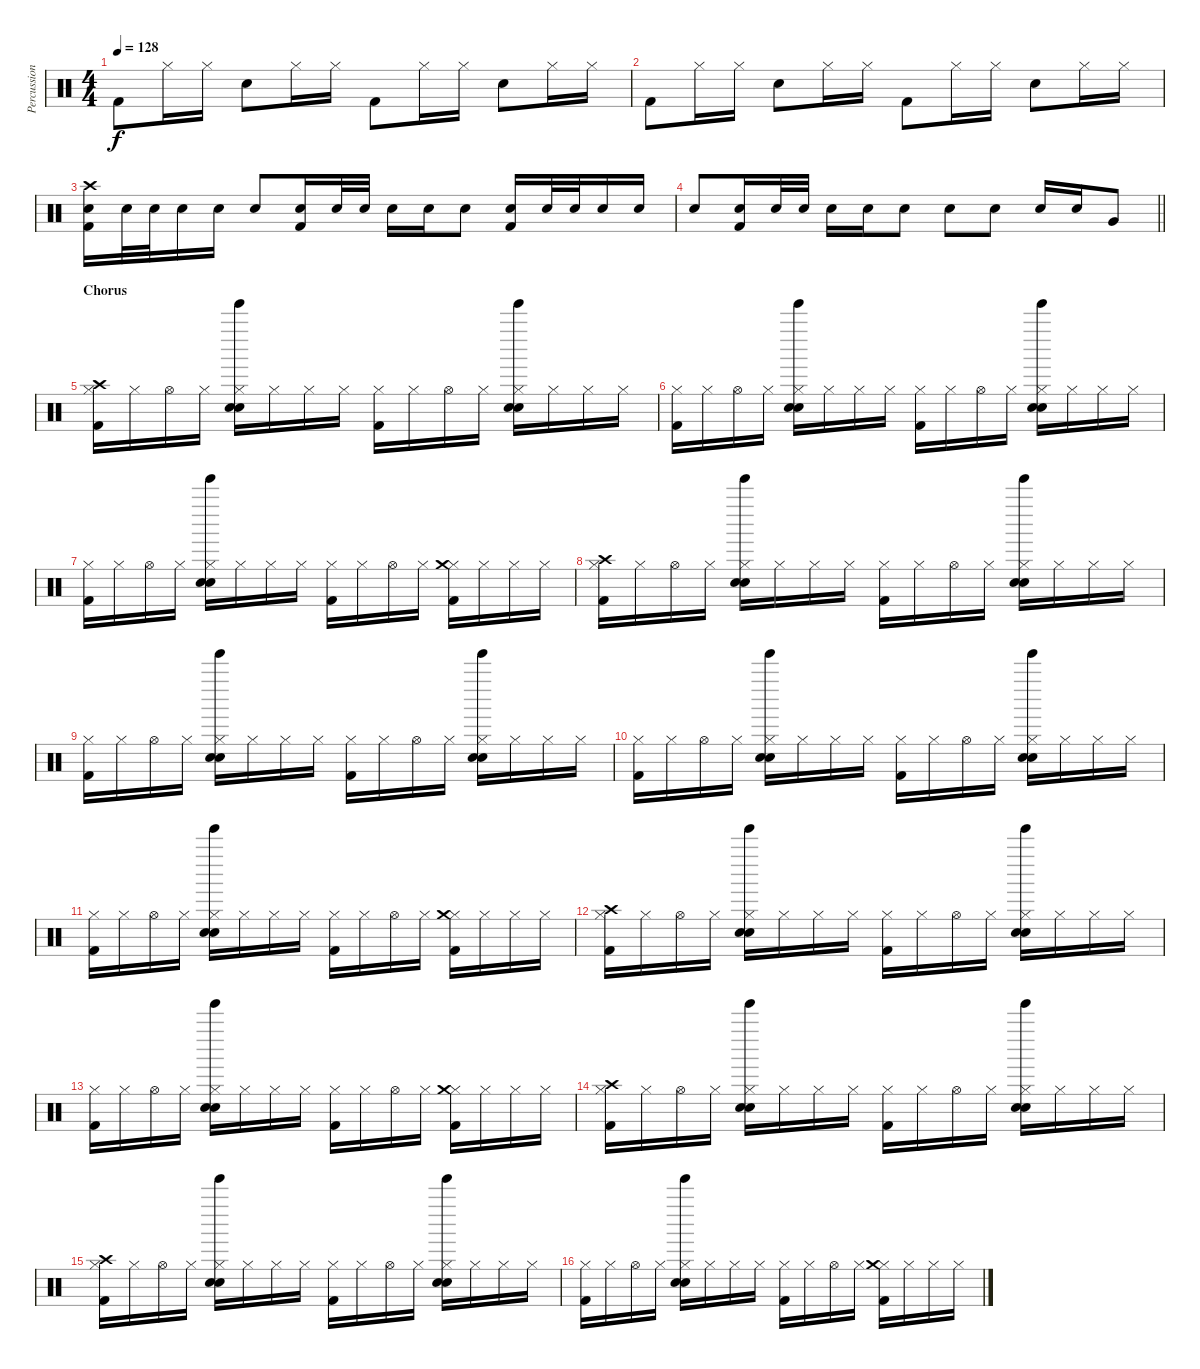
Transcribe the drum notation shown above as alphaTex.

\track ("Percussion" "Percussion") {instrument percussion}
\staff {score}
\articulation defaults
\ts (4 4)
\tempo 128
\clef neutral
\ks c "Kick (hit) 2".8{dy f} "Hi-Hat (closed)".16 "Hi-Hat (closed)".16 "Electric Snare (hit)".8 "Hi-Hat (closed)".16 "Hi-Hat (closed)".16 "Kick (hit) 2".8 "Hi-Hat (closed)".16 "Hi-Hat (closed)".16 "Electric Snare (hit)".8 "Hi-Hat (closed)".16 "Hi-Hat (closed)".16
|
"Kick (hit) 2".8 "Hi-Hat (closed)".16 "Hi-Hat (closed)".16 "Electric Snare (hit)".8 "Hi-Hat (closed)".16 "Hi-Hat (closed)".16 "Kick (hit) 2".8 "Hi-Hat (closed)".16 "Hi-Hat (closed)".16 "Electric Snare (hit)".8 "Hi-Hat (closed)".16 "Hi-Hat (closed)".16 |
("Crash high (hit)" "Electric Snare (hit)" "Kick (hit) 2").16 "Electric Snare (hit)".32 "Electric Snare (hit)".32 "Electric Snare (hit)".16 "Electric Snare (hit)".16 "Electric Snare (hit)".8 ("Electric Snare (hit)" "Kick (hit) 2").16 "Electric Snare (hit)".32 "Electric Snare (hit)".32 "Electric Snare (hit)".16 "Electric Snare (hit)".16 "Electric Snare (hit)".8 ("Electric Snare (hit)" "Kick (hit) 2").16 "Electric Snare (hit)".32 "Electric Snare (hit)".32 "Electric Snare (hit)".16 "Electric Snare (hit)".16 |
\barLineRight lightlight "Electric Snare (hit)".8
("Electric Snare (hit)" "Kick (hit) 2").16 "Electric Snare (hit)".32 "Electric Snare (hit)".32 "Electric Snare (hit)".16 "Electric Snare (hit)".16 "Electric Snare (hit)".8 "Electric Snare (hit)".8 "Electric Snare (hit)".8 "Electric Snare (hit)".16 "Electric Snare (hit)".16 "Very Low Tom (hit)".8 |
\section ("" "Chorus")
("Hi-Hat (closed)" "Crash high (hit)" "Kick (hit) 2").16 "Hi-Hat (closed)".16 "Hi-Hat (open)".16 "Hi-Hat (closed)".16 ("Hi-Hat (closed)" "Hand Clap (hit)" "Tinkle Bell (hit)" "Electric Snare (hit)").16 "Hi-Hat (closed)".16 "Hi-Hat (closed)".16 "Hi-Hat (closed)".16 ("Hi-Hat (closed)" "Kick (hit) 2").16 "Hi-Hat (closed)".16 "Hi-Hat (open)".16 "Hi-Hat (closed)".16 ("Hi-Hat (closed)" "Hand Clap (hit)" "Tinkle Bell (hit)" "Electric Snare (hit)").16 "Hi-Hat (closed)".16 "Hi-Hat (closed)".16 "Hi-Hat (closed)".16 |
("Hi-Hat (closed)" "Kick (hit) 2").16 "Hi-Hat (closed)".16 "Hi-Hat (open)".16 "Hi-Hat (closed)".16 ("Hi-Hat (closed)" "Hand Clap (hit)" "Tinkle Bell (hit)" "Electric Snare (hit)").16 "Hi-Hat (closed)".16 "Hi-Hat (closed)".16 "Hi-Hat (closed)".16 ("Hi-Hat (closed)" "Kick (hit) 2").16 "Hi-Hat (closed)".16 "Hi-Hat (open)".16 "Hi-Hat (closed)".16 ("Hi-Hat (closed)" "Hand Clap (hit)" "Tinkle Bell (hit)" "Electric Snare (hit)").16 "Hi-Hat (closed)".16 "Hi-Hat (closed)".16 "Hi-Hat (closed)".16 |
("Hi-Hat (closed)" "Kick (hit) 2").16 "Hi-Hat (closed)".16 "Hi-Hat (open)".16 "Hi-Hat (closed)".16 ("Hi-Hat (closed)" "Hand Clap (hit)" "Tinkle Bell (hit)" "Electric Snare (hit)").16 "Hi-Hat (closed)".16 "Hi-Hat (closed)".16 "Hi-Hat (closed)".16 ("Hi-Hat (closed)" "Kick (hit) 2").16 "Hi-Hat (closed)".16 "Hi-Hat (open)".16 "Hi-Hat (closed)".16 ("Hi-Hat (closed)" "Crash medium (hit)" "Kick (hit) 2").16 "Hi-Hat (closed)".16 "Hi-Hat (closed)".16 "Hi-Hat (closed)".16 |
("Hi-Hat (closed)" "Crash high (hit)" "Kick (hit) 2").16 "Hi-Hat (closed)".16 "Hi-Hat (open)".16 "Hi-Hat (closed)".16 ("Hi-Hat (closed)" "Hand Clap (hit)" "Tinkle Bell (hit)" "Electric Snare (hit)").16 "Hi-Hat (closed)".16 "Hi-Hat (closed)".16 "Hi-Hat (closed)".16 ("Hi-Hat (closed)" "Kick (hit) 2").16 "Hi-Hat (closed)".16 "Hi-Hat (open)".16 "Hi-Hat (closed)".16 ("Hi-Hat (closed)" "Hand Clap (hit)" "Tinkle Bell (hit)" "Electric Snare (hit)").16 "Hi-Hat (closed)".16 "Hi-Hat (closed)".16 "Hi-Hat (closed)".16 |
("Hi-Hat (closed)" "Kick (hit) 2").16 "Hi-Hat (closed)".16 "Hi-Hat (open)".16 "Hi-Hat (closed)".16 ("Hi-Hat (closed)" "Hand Clap (hit)" "Tinkle Bell (hit)" "Electric Snare (hit)").16 "Hi-Hat (closed)".16 "Hi-Hat (closed)".16 "Hi-Hat (closed)".16 ("Hi-Hat (closed)" "Kick (hit) 2").16 "Hi-Hat (closed)".16 "Hi-Hat (open)".16 "Hi-Hat (closed)".16 ("Hi-Hat (closed)" "Hand Clap (hit)" "Tinkle Bell (hit)" "Electric Snare (hit)").16 "Hi-Hat (closed)".16 "Hi-Hat (closed)".16 "Hi-Hat (closed)".16 |
("Hi-Hat (closed)" "Kick (hit) 2").16 "Hi-Hat (closed)".16 "Hi-Hat (open)".16 "Hi-Hat (closed)".16 ("Hi-Hat (closed)" "Hand Clap (hit)" "Tinkle Bell (hit)" "Electric Snare (hit)").16 "Hi-Hat (closed)".16 "Hi-Hat (closed)".16 "Hi-Hat (closed)".16 ("Hi-Hat (closed)" "Kick (hit) 2").16 "Hi-Hat (closed)".16 "Hi-Hat (open)".16 "Hi-Hat (closed)".16 ("Hi-Hat (closed)" "Hand Clap (hit)" "Tinkle Bell (hit)" "Electric Snare (hit)").16 "Hi-Hat (closed)".16 "Hi-Hat (closed)".16 "Hi-Hat (closed)".16 |
("Hi-Hat (closed)" "Kick (hit) 2").16 "Hi-Hat (closed)".16 "Hi-Hat (open)".16 "Hi-Hat (closed)".16 ("Hi-Hat (closed)" "Hand Clap (hit)" "Tinkle Bell (hit)" "Electric Snare (hit)").16 "Hi-Hat (closed)".16 "Hi-Hat (closed)".16 "Hi-Hat (closed)".16 ("Hi-Hat (closed)" "Kick (hit) 2").16 "Hi-Hat (closed)".16 "Hi-Hat (open)".16 "Hi-Hat (closed)".16 ("Hi-Hat (closed)" "Crash medium (hit)" "Kick (hit) 2").16 "Hi-Hat (closed)".16 "Hi-Hat (closed)".16 "Hi-Hat (closed)".16 |
("Hi-Hat (closed)" "Crash high (hit)" "Kick (hit) 2").16 "Hi-Hat (closed)".16 "Hi-Hat (open)".16 "Hi-Hat (closed)".16 ("Hi-Hat (closed)" "Hand Clap (hit)" "Tinkle Bell (hit)" "Electric Snare (hit)").16 "Hi-Hat (closed)".16 "Hi-Hat (closed)".16 "Hi-Hat (closed)".16 ("Hi-Hat (closed)" "Kick (hit) 2").16 "Hi-Hat (closed)".16 "Hi-Hat (open)".16 "Hi-Hat (closed)".16 ("Hi-Hat (closed)" "Hand Clap (hit)" "Tinkle Bell (hit)" "Electric Snare (hit)").16 "Hi-Hat (closed)".16 "Hi-Hat (closed)".16 "Hi-Hat (closed)".16 |
("Hi-Hat (closed)" "Kick (hit) 2").16 "Hi-Hat (closed)".16 "Hi-Hat (open)".16 "Hi-Hat (closed)".16 ("Hi-Hat (closed)" "Hand Clap (hit)" "Tinkle Bell (hit)" "Electric Snare (hit)").16 "Hi-Hat (closed)".16 "Hi-Hat (closed)".16 "Hi-Hat (closed)".16 ("Hi-Hat (closed)" "Kick (hit) 2").16 "Hi-Hat (closed)".16 "Hi-Hat (open)".16 "Hi-Hat (closed)".16 ("Hi-Hat (closed)" "Crash medium (hit)" "Kick (hit) 2").16 "Hi-Hat (closed)".16 "Hi-Hat (closed)".16 "Hi-Hat (closed)".16 |
("Hi-Hat (closed)" "Crash high (hit)" "Kick (hit) 2").16 "Hi-Hat (closed)".16 "Hi-Hat (open)".16 "Hi-Hat (closed)".16 ("Hi-Hat (closed)" "Hand Clap (hit)" "Tinkle Bell (hit)" "Electric Snare (hit)").16 "Hi-Hat (closed)".16 "Hi-Hat (closed)".16 "Hi-Hat (closed)".16 ("Hi-Hat (closed)" "Kick (hit) 2").16 "Hi-Hat (closed)".16 "Hi-Hat (open)".16 "Hi-Hat (closed)".16 ("Hi-Hat (closed)" "Hand Clap (hit)" "Tinkle Bell (hit)" "Electric Snare (hit)").16 "Hi-Hat (closed)".16 "Hi-Hat (closed)".16 "Hi-Hat (closed)".16 |
("Hi-Hat (closed)" "Crash high (hit)" "Kick (hit) 2").16 "Hi-Hat (closed)".16 "Hi-Hat (open)".16 "Hi-Hat (closed)".16 ("Hi-Hat (closed)" "Hand Clap (hit)" "Tinkle Bell (hit)" "Electric Snare (hit)").16 "Hi-Hat (closed)".16 "Hi-Hat (closed)".16 "Hi-Hat (closed)".16 ("Hi-Hat (closed)" "Kick (hit) 2").16 "Hi-Hat (closed)".16 "Hi-Hat (open)".16 "Hi-Hat (closed)".16 ("Hi-Hat (closed)" "Hand Clap (hit)" "Tinkle Bell (hit)" "Electric Snare (hit)").16 "Hi-Hat (closed)".16 "Hi-Hat (closed)".16 "Hi-Hat (closed)".16 |
("Hi-Hat (closed)" "Kick (hit) 2").16 "Hi-Hat (closed)".16 "Hi-Hat (open)".16 "Hi-Hat (closed)".16 ("Hi-Hat (closed)" "Hand Clap (hit)" "Tinkle Bell (hit)" "Electric Snare (hit)").16 "Hi-Hat (closed)".16 "Hi-Hat (closed)".16 "Hi-Hat (closed)".16 ("Hi-Hat (closed)" "Kick (hit) 2").16 "Hi-Hat (closed)".16 "Hi-Hat (open)".16 "Hi-Hat (closed)".16 ("Hi-Hat (closed)" "Crash medium (hit)" "Kick (hit) 2").16 "Hi-Hat (closed)".16 "Hi-Hat (closed)".16 "Hi-Hat (closed)".16
